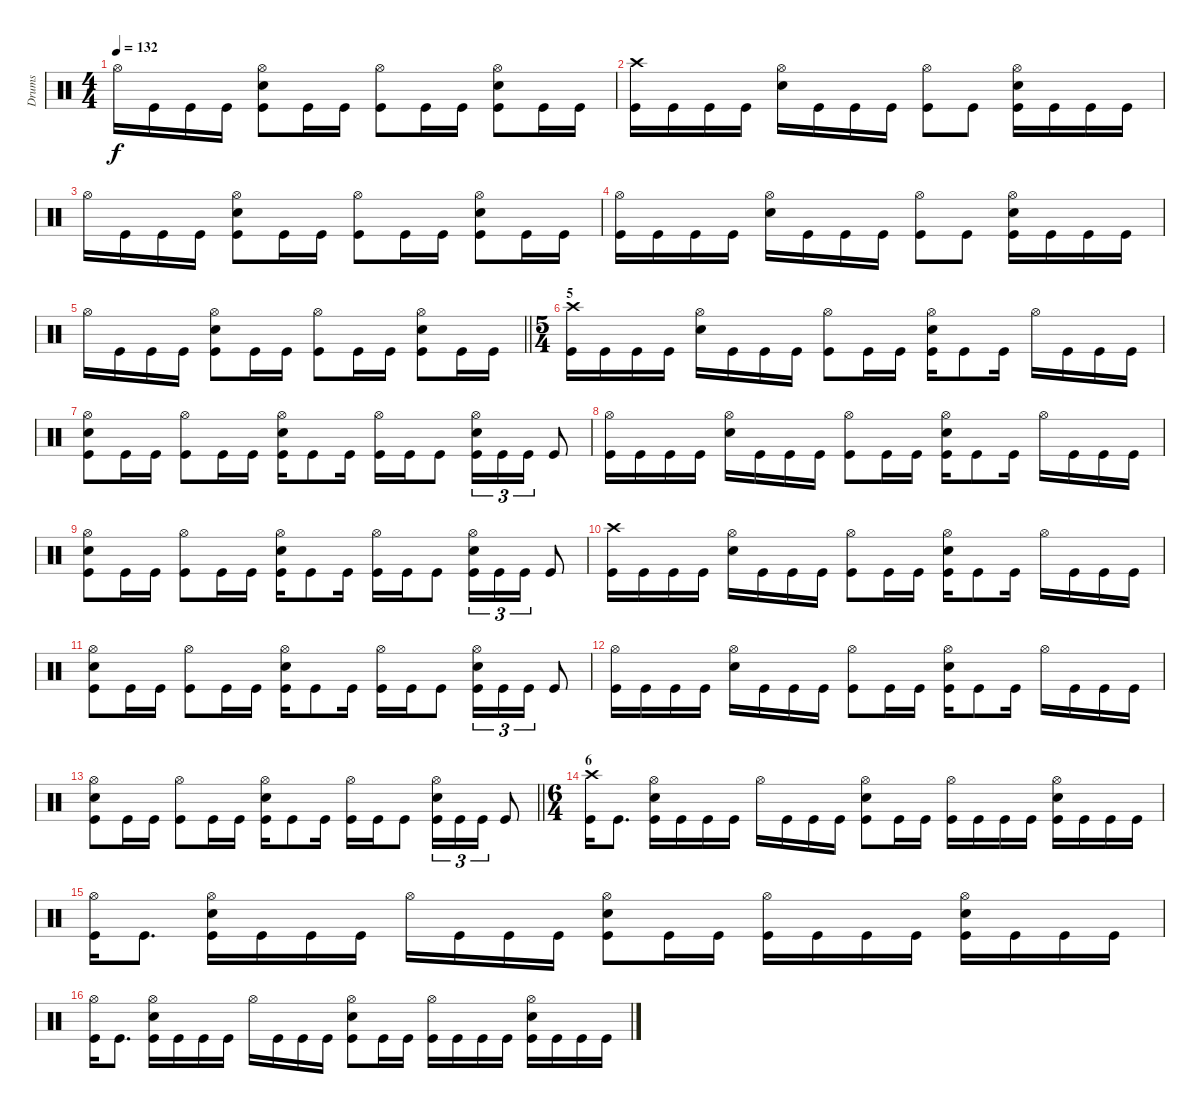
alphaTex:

\track ("Drums" "Drums") {instrument percussion}
\staff
\articulation defaults
\ts (4 4)
\tempo 132
\clef neutral
\ks c "Hi-Hat (open)".16{dy f} "Kick (hit)".16 "Kick (hit)".16 "Kick (hit)".16
("Hi-Hat (open)" "Electric Snare (hit)" "Kick (hit)").8 "Kick (hit)".16 "Kick (hit)".16 ("Hi-Hat (open)" "Kick (hit)").8 "Kick (hit)".16 "Kick (hit)".16 ("Hi-Hat (open)" "Electric Snare (hit)" "Kick (hit)").8 "Kick (hit)".16 "Kick (hit)".16 |
("Crash high (hit)" "Kick (hit)").16 "Kick (hit)".16 "Kick (hit)".16 "Kick (hit)".16 ("Hi-Hat (open)" "Electric Snare (hit)").16 "Kick (hit)".16 "Kick (hit)".16 "Kick (hit)".16 ("Hi-Hat (open)" "Kick (hit)").8 "Kick (hit)".8 ("Hi-Hat (open)" "Electric Snare (hit)" "Kick (hit)").16 "Kick (hit)".16 "Kick (hit)".16 "Kick (hit)".16 |
"Hi-Hat (open)".16 "Kick (hit)".16 "Kick (hit)".16 "Kick (hit)".16 ("Hi-Hat (open)" "Electric Snare (hit)" "Kick (hit)").8 "Kick (hit)".16 "Kick (hit)".16 ("Hi-Hat (open)" "Kick (hit)").8 "Kick (hit)".16 "Kick (hit)".16 ("Hi-Hat (open)" "Electric Snare (hit)" "Kick (hit)").8 "Kick (hit)".16 "Kick (hit)".16 |
("Hi-Hat (open)" "Kick (hit)").16 "Kick (hit)".16 "Kick (hit)".16 "Kick (hit)".16 ("Hi-Hat (open)" "Electric Snare (hit)").16 "Kick (hit)".16 "Kick (hit)".16 "Kick (hit)".16 ("Hi-Hat (open)" "Kick (hit)").8 "Kick (hit)".8 ("Hi-Hat (open)" "Electric Snare (hit)" "Kick (hit)").16 "Kick (hit)".16 "Kick (hit)".16 "Kick (hit)".16 |
\barLineRight lightlight "Hi-Hat (open)".16 "Kick (hit)".16 "Kick (hit)".16 "Kick (hit)".16
("Hi-Hat (open)" "Electric Snare (hit)" "Kick (hit)").8 "Kick (hit)".16 "Kick (hit)".16 ("Hi-Hat (open)" "Kick (hit)").8 "Kick (hit)".16 "Kick (hit)".16 ("Hi-Hat (open)" "Electric Snare (hit)" "Kick (hit)").8 "Kick (hit)".16 "Kick (hit)".16 |
\ts (5 4)
\section ("" "5")
("Crash high (hit)" "Kick (hit)").16 "Kick (hit)".16 "Kick (hit)".16 "Kick (hit)".16 ("Hi-Hat (open)" "Electric Snare (hit)").16 "Kick (hit)".16 "Kick (hit)".16 "Kick (hit)".16 ("Hi-Hat (open)" "Kick (hit)").8 "Kick (hit)".16 "Kick (hit)".16 ("Hi-Hat (open)" "Electric Snare (hit)" "Kick (hit)").16 "Kick (hit)".8 "Kick (hit)".16 "Hi-Hat (open)".16 "Kick (hit)".16 "Kick (hit)".16 "Kick (hit)".16 |
("Hi-Hat (open)" "Electric Snare (hit)" "Kick (hit)").8 "Kick (hit)".16 "Kick (hit)".16 ("Hi-Hat (open)" "Kick (hit)").8 "Kick (hit)".16 "Kick (hit)".16 ("Hi-Hat (open)" "Electric Snare (hit)" "Kick (hit)").16 "Kick (hit)".8 "Kick (hit)".16 ("Hi-Hat (open)" "Kick (hit)").16 "Kick (hit)".16 "Kick (hit)".8 ("Hi-Hat (open)" "Electric Snare (hit)" "Kick (hit)").16{tu (3 2)} "Kick (hit)".16{tu (3 2)} "Kick (hit)".16{tu (3 2)} "Kick (hit)".8 |
("Hi-Hat (open)" "Kick (hit)").16 "Kick (hit)".16 "Kick (hit)".16 "Kick (hit)".16 ("Hi-Hat (open)" "Electric Snare (hit)").16 "Kick (hit)".16 "Kick (hit)".16 "Kick (hit)".16 ("Hi-Hat (open)" "Kick (hit)").8 "Kick (hit)".16 "Kick (hit)".16 ("Hi-Hat (open)" "Electric Snare (hit)" "Kick (hit)").16 "Kick (hit)".8 "Kick (hit)".16 "Hi-Hat (open)".16 "Kick (hit)".16 "Kick (hit)".16 "Kick (hit)".16 |
("Hi-Hat (open)" "Electric Snare (hit)" "Kick (hit)").8 "Kick (hit)".16 "Kick (hit)".16 ("Hi-Hat (open)" "Kick (hit)").8 "Kick (hit)".16 "Kick (hit)".16 ("Hi-Hat (open)" "Electric Snare (hit)" "Kick (hit)").16 "Kick (hit)".8 "Kick (hit)".16 ("Hi-Hat (open)" "Kick (hit)").16 "Kick (hit)".16 "Kick (hit)".8 ("Hi-Hat (open)" "Electric Snare (hit)" "Kick (hit)").16{tu (3 2)} "Kick (hit)".16{tu (3 2)} "Kick (hit)".16{tu (3 2)} "Kick (hit)".8 |
("Crash high (hit)" "Kick (hit)").16 "Kick (hit)".16 "Kick (hit)".16 "Kick (hit)".16 ("Hi-Hat (open)" "Electric Snare (hit)").16 "Kick (hit)".16 "Kick (hit)".16 "Kick (hit)".16 ("Hi-Hat (open)" "Kick (hit)").8 "Kick (hit)".16 "Kick (hit)".16 ("Hi-Hat (open)" "Electric Snare (hit)" "Kick (hit)").16 "Kick (hit)".8 "Kick (hit)".16 "Hi-Hat (open)".16 "Kick (hit)".16 "Kick (hit)".16 "Kick (hit)".16 |
("Hi-Hat (open)" "Electric Snare (hit)" "Kick (hit)").8 "Kick (hit)".16 "Kick (hit)".16 ("Hi-Hat (open)" "Kick (hit)").8 "Kick (hit)".16 "Kick (hit)".16 ("Hi-Hat (open)" "Electric Snare (hit)" "Kick (hit)").16 "Kick (hit)".8 "Kick (hit)".16 ("Hi-Hat (open)" "Kick (hit)").16 "Kick (hit)".16 "Kick (hit)".8 ("Hi-Hat (open)" "Electric Snare (hit)" "Kick (hit)").16{tu (3 2)} "Kick (hit)".16{tu (3 2)} "Kick (hit)".16{tu (3 2)} "Kick (hit)".8 |
("Hi-Hat (open)" "Kick (hit)").16 "Kick (hit)".16 "Kick (hit)".16 "Kick (hit)".16 ("Hi-Hat (open)" "Electric Snare (hit)").16 "Kick (hit)".16 "Kick (hit)".16 "Kick (hit)".16 ("Hi-Hat (open)" "Kick (hit)").8 "Kick (hit)".16 "Kick (hit)".16 ("Hi-Hat (open)" "Electric Snare (hit)" "Kick (hit)").16 "Kick (hit)".8 "Kick (hit)".16 "Hi-Hat (open)".16 "Kick (hit)".16 "Kick (hit)".16 "Kick (hit)".16 |
\barLineRight lightlight
("Hi-Hat (open)" "Electric Snare (hit)" "Kick (hit)").8 "Kick (hit)".16 "Kick (hit)".16 ("Hi-Hat (open)" "Kick (hit)").8 "Kick (hit)".16 "Kick (hit)".16 ("Hi-Hat (open)" "Electric Snare (hit)" "Kick (hit)").16 "Kick (hit)".8 "Kick (hit)".16 ("Hi-Hat (open)" "Kick (hit)").16 "Kick (hit)".16 "Kick (hit)".8 ("Hi-Hat (open)" "Electric Snare (hit)" "Kick (hit)").16{tu (3 2)} "Kick (hit)".16{tu (3 2)} "Kick (hit)".16{tu (3 2)} "Kick (hit)".8 |
\ts (6 4)
\section ("" "6")
("Crash high (hit)" "Kick (hit)").16 "Kick (hit)".8{d} ("Hi-Hat (open)" "Electric Snare (hit)" "Kick (hit)").16 "Kick (hit)".16 "Kick (hit)".16 "Kick (hit)".16 "Hi-Hat (open)".16 "Kick (hit)".16 "Kick (hit)".16 "Kick (hit)".16 ("Hi-Hat (open)" "Electric Snare (hit)" "Kick (hit)").8 "Kick (hit)".16 "Kick (hit)".16 ("Hi-Hat (open)" "Kick (hit)").16 "Kick (hit)".16 "Kick (hit)".16 "Kick (hit)".16 ("Hi-Hat (open)" "Electric Snare (hit)" "Kick (hit)").16 "Kick (hit)".16 "Kick (hit)".16 "Kick (hit)".16 |
("Hi-Hat (open)" "Kick (hit)").16 "Kick (hit)".8{d} ("Hi-Hat (open)" "Electric Snare (hit)" "Kick (hit)").16 "Kick (hit)".16 "Kick (hit)".16 "Kick (hit)".16 "Hi-Hat (open)".16 "Kick (hit)".16 "Kick (hit)".16 "Kick (hit)".16 ("Hi-Hat (open)" "Electric Snare (hit)" "Kick (hit)").8 "Kick (hit)".16 "Kick (hit)".16 ("Hi-Hat (open)" "Kick (hit)").16 "Kick (hit)".16 "Kick (hit)".16 "Kick (hit)".16 ("Hi-Hat (open)" "Electric Snare (hit)" "Kick (hit)").16 "Kick (hit)".16 "Kick (hit)".16 "Kick (hit)".16 |
("Hi-Hat (open)" "Kick (hit)").16 "Kick (hit)".8{d} ("Hi-Hat (open)" "Electric Snare (hit)" "Kick (hit)").16 "Kick (hit)".16 "Kick (hit)".16 "Kick (hit)".16 "Hi-Hat (open)".16 "Kick (hit)".16 "Kick (hit)".16 "Kick (hit)".16 ("Hi-Hat (open)" "Electric Snare (hit)" "Kick (hit)").8 "Kick (hit)".16 "Kick (hit)".16 ("Hi-Hat (open)" "Kick (hit)").16 "Kick (hit)".16 "Kick (hit)".16 "Kick (hit)".16 ("Hi-Hat (open)" "Electric Snare (hit)" "Kick (hit)").16 "Kick (hit)".16 "Kick (hit)".16 "Kick (hit)".16
